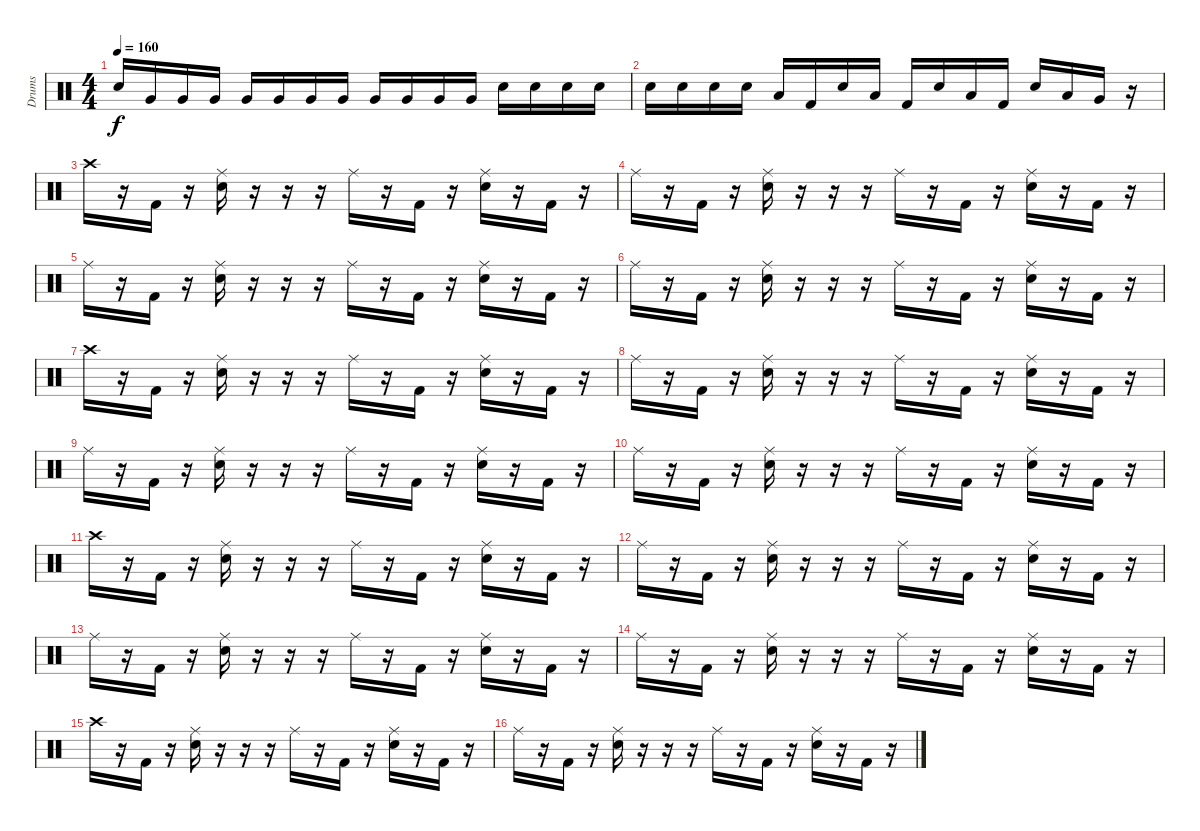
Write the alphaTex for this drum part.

\track ("Drums" "Drums") {instrument percussion}
\staff {score}
\articulation defaults
\ts (4 4)
\tempo 160
\clef neutral
\ks c "Electric Snare (hit)".16{dy f} "Very Low Tom (hit)".16 "Very Low Tom (hit)".16 "Very Low Tom (hit)".16 "Very Low Tom (hit)".16 "Very Low Tom (hit)".16 "Very Low Tom (hit)".16 "Very Low Tom (hit)".16 "Very Low Tom (hit)".16 "Very Low Tom (hit)".16 "Very Low Tom (hit)".16 "Very Low Tom (hit)".16 "Electric Snare (hit)".16 "Electric Snare (hit)".16 "Electric Snare (hit)".16 "Electric Snare (hit)".16
|
"Electric Snare (hit)".16 "Electric Snare (hit)".16 "Electric Snare (hit)".16 "Electric Snare (hit)".16 "Low Tom (hit)".16 "Kick (hit) 2".16 "Electric Snare (hit)".16 "Low Tom (hit)".16 "Kick (hit) 2".16 "Electric Snare (hit)".16 "Low Tom (hit)".16 "Kick (hit) 2".16 "Electric Snare (hit)".16 "Low Tom (hit)".16 "Very Low Tom (hit)".16 r.16 |
"Crash high (hit)".16 r.16 "Kick (hit) 2".16 r.16 ("Ride (middle)" "Electric Snare (hit)").16 r.16 r.16 r.16 "Ride (middle)".16 r.16 "Kick (hit) 2".16 r.16 ("Ride (middle)" "Electric Snare (hit)").16 r.16 "Kick (hit) 2".16 r.16 |
"Ride (middle)".16 r.16 "Kick (hit) 2".16 r.16 ("Ride (middle)" "Electric Snare (hit)").16 r.16 r.16 r.16 "Ride (middle)".16 r.16 "Kick (hit) 2".16 r.16 ("Ride (middle)" "Electric Snare (hit)").16 r.16 "Kick (hit) 2".16 r.16 |
"Ride (middle)".16 r.16 "Kick (hit) 2".16 r.16 ("Ride (middle)" "Electric Snare (hit)").16 r.16 r.16 r.16 "Ride (middle)".16 r.16 "Kick (hit) 2".16 r.16 ("Ride (middle)" "Electric Snare (hit)").16 r.16 "Kick (hit) 2".16 r.16 |
"Ride (middle)".16 r.16 "Kick (hit) 2".16 r.16 ("Ride (middle)" "Electric Snare (hit)").16 r.16 r.16 r.16 "Ride (middle)".16 r.16 "Kick (hit) 2".16 r.16 ("Ride (middle)" "Electric Snare (hit)").16 r.16 "Kick (hit) 2".16 r.16 |
"Crash high (hit)".16 r.16 "Kick (hit) 2".16 r.16 ("Ride (middle)" "Electric Snare (hit)").16 r.16 r.16 r.16 "Ride (middle)".16 r.16 "Kick (hit) 2".16 r.16 ("Ride (middle)" "Electric Snare (hit)").16 r.16 "Kick (hit) 2".16 r.16 |
"Ride (middle)".16 r.16 "Kick (hit) 2".16 r.16 ("Ride (middle)" "Electric Snare (hit)").16 r.16 r.16 r.16 "Ride (middle)".16 r.16 "Kick (hit) 2".16 r.16 ("Ride (middle)" "Electric Snare (hit)").16 r.16 "Kick (hit) 2".16 r.16 |
"Ride (middle)".16 r.16 "Kick (hit) 2".16 r.16 ("Ride (middle)" "Electric Snare (hit)").16 r.16 r.16 r.16 "Ride (middle)".16 r.16 "Kick (hit) 2".16 r.16 ("Ride (middle)" "Electric Snare (hit)").16 r.16 "Kick (hit) 2".16 r.16 |
"Ride (middle)".16 r.16 "Kick (hit) 2".16 r.16 ("Ride (middle)" "Electric Snare (hit)").16 r.16 r.16 r.16 "Ride (middle)".16 r.16 "Kick (hit) 2".16 r.16 ("Ride (middle)" "Electric Snare (hit)").16 r.16 "Kick (hit) 2".16 r.16 |
"Crash high (hit)".16 r.16 "Kick (hit) 2".16 r.16 ("Ride (middle)" "Electric Snare (hit)").16 r.16 r.16 r.16 "Ride (middle)".16 r.16 "Kick (hit) 2".16 r.16 ("Ride (middle)" "Electric Snare (hit)").16 r.16 "Kick (hit) 2".16 r.16 |
"Ride (middle)".16 r.16 "Kick (hit) 2".16 r.16 ("Ride (middle)" "Electric Snare (hit)").16 r.16 r.16 r.16 "Ride (middle)".16 r.16 "Kick (hit) 2".16 r.16 ("Ride (middle)" "Electric Snare (hit)").16 r.16 "Kick (hit) 2".16 r.16 |
"Ride (middle)".16 r.16 "Kick (hit) 2".16 r.16 ("Ride (middle)" "Electric Snare (hit)").16 r.16 r.16 r.16 "Ride (middle)".16 r.16 "Kick (hit) 2".16 r.16 ("Ride (middle)" "Electric Snare (hit)").16 r.16 "Kick (hit) 2".16 r.16 |
"Ride (middle)".16 r.16 "Kick (hit) 2".16 r.16 ("Ride (middle)" "Electric Snare (hit)").16 r.16 r.16 r.16 "Ride (middle)".16 r.16 "Kick (hit) 2".16 r.16 ("Ride (middle)" "Electric Snare (hit)").16 r.16 "Kick (hit) 2".16 r.16 |
"Crash high (hit)".16 r.16 "Kick (hit) 2".16 r.16 ("Ride (middle)" "Electric Snare (hit)").16 r.16 r.16 r.16 "Ride (middle)".16 r.16 "Kick (hit) 2".16 r.16 ("Ride (middle)" "Electric Snare (hit)").16 r.16 "Kick (hit) 2".16 r.16 |
"Ride (middle)".16 r.16 "Kick (hit) 2".16 r.16 ("Ride (middle)" "Electric Snare (hit)").16 r.16 r.16 r.16 "Ride (middle)".16 r.16 "Kick (hit) 2".16 r.16 ("Ride (middle)" "Electric Snare (hit)").16 r.16 "Kick (hit) 2".16 r.16
